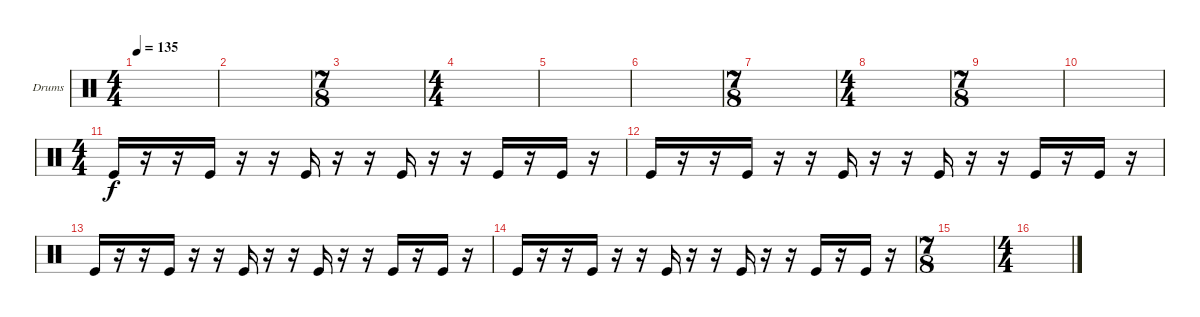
\defaultSystemsLayout 4
\bracketExtendMode groupsimilarinstruments
\firstSystemTrackNameOrientation horizontal
\otherSystemsTrackNameOrientation horizontal
\track ("Drumkit" "Drums") {instrument percussion}
\staff {score}
\articulation defaults
\ts (4 4)
\tempo 135
\clef neutral
\scale
0.472222
\ks c
|
\scale
0.263889 |
\ts (7 8)
\scale
0.263889 |
\ts (4 4)
\scale
0.390805 |
\scale
0.390805 |
\scale
0.218391 |
\ts (7 8)
\scale
0.218391 |
\ts (4 4)
\scale
0.390805 |
\ts (7 8)
\scale
0.390805 |
\scale
0.390805 |
\ts (4 4)
\scale
0.390805 "Kick (hit)".16 r.16 r.16 "Kick (hit)".16 r.16 r.16 "Kick (hit)".16 r.16 r.16 "Kick (hit)".16 r.16 r.16 "Kick (hit)".16 r.16 "Kick (hit)".16 r.16 |
\scale
0.218391 "Kick (hit)".16 r.16 r.16 "Kick (hit)".16 r.16 r.16 "Kick (hit)".16 r.16 r.16 "Kick (hit)".16 r.16 r.16 "Kick (hit)".16 r.16 "Kick (hit)".16 r.16 |
\scale
0.333333 "Kick (hit)".16 r.16 r.16 "Kick (hit)".16 r.16 r.16 "Kick (hit)".16 r.16 r.16 "Kick (hit)".16 r.16 r.16 "Kick (hit)".16 r.16 "Kick (hit)".16 r.16 |
\scale
0.333333 "Kick (hit)".16 r.16 r.16 "Kick (hit)".16 r.16 r.16 "Kick (hit)".16 r.16 r.16 "Kick (hit)".16 r.16 r.16 "Kick (hit)".16 r.16 "Kick (hit)".16 r.16 |
\ts (7 8)
\scale
0.333333 |
\ts (4 4)
\scale
0.333333
